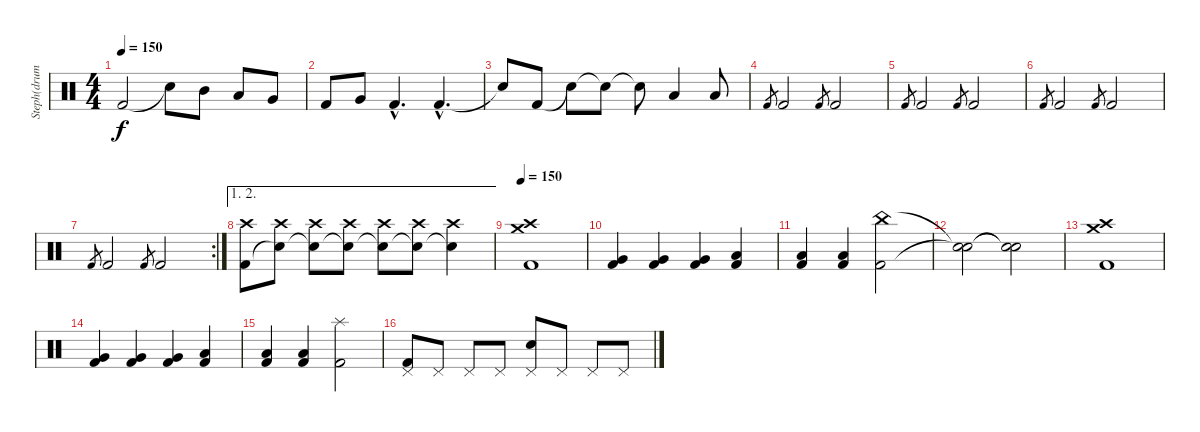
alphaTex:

\track ("Steph(drums)" "Steph(drum") {instrument percussion}
\staff {score}
\articulation defaults
\ts (4 4)
\tempo 150
\clef neutral
\ks c "Kick (hit) 2".2{dy f} "Snare (hit)"{t}.8 "Mid Tom (hit)".8 "Low Tom (hit)".8 "Very Low Tom (hit)".8
|
"Kick (hit) 2".8 "Very Low Tom (hit)".8 "Kick (hit) 2"{hac}.4{d} "Kick (hit) 2"{hac}.4{d} |
"Snare (hit)"{t}.8 "Kick (hit) 2".8 "Snare (hit)"{t}.8 "Snare (hit)"{t}.8 "Snare (hit)"{t}.8 "Low Tom (hit)".4 "Low Tom (hit)".8 |
"Kick (hit) 2".8{gr} "Kick (hit) 2".2 "Kick (hit) 2".8{gr} "Kick (hit) 2".2 |
"Kick (hit) 2".8{gr} "Kick (hit) 2".2 "Kick (hit) 2".8{gr} "Kick (hit) 2".2 |
"Kick (hit) 2".8{gr} "Kick (hit) 2".2 "Kick (hit) 2".8{gr} "Kick (hit) 2".2 |
\rc 2 "Kick (hit) 2".8{gr} "Kick (hit) 2".2 "Kick (hit) 2".8{gr} "Kick (hit) 2".2
|
\ae (1 2)
("Crash high (hit)" "Kick (hit) 2").8 ("Crash high (hit)" "Snare (hit)"{t}).8 ("Crash high (hit)" "Snare (hit)"{t}).8 ("Crash high (hit)" "Snare (hit)"{t}).8 ("Crash high (hit)" "Snare (hit)"{t}).8 ("Crash high (hit)" "Snare (hit)"{t}).8 ("Crash high (hit)" "Snare (hit)"{t}).4 |
\tempo 150
("Crash high (hit)" "Crash medium (hit)" "Kick (hit) 2").1 |
("Very Low Tom (hit)" "Kick (hit) 2").4 ("Very Low Tom (hit)" "Kick (hit) 2").4 ("Very Low Tom (hit)" "Kick (hit) 2").4 ("Low Tom (hit)" "Kick (hit) 2").4 |
("Low Tom (hit)" "Kick (hit) 2").4 ("Low Tom (hit)" "Kick (hit) 2").4 ("China (hit)" "Kick (hit) 2").2 |
("Snare (hit)"{t} "Snare (hit)"{t}).2 ("Snare (hit)"{t} "Snare (hit)"{t}).2 |
("Crash high (hit)" "Crash medium (hit)" "Kick (hit) 2").1 |
("Very Low Tom (hit)" "Kick (hit) 2").4 ("Very Low Tom (hit)" "Kick (hit) 2").4 ("Very Low Tom (hit)" "Kick (hit) 2").4 ("Low Tom (hit)" "Kick (hit) 2").4 |
("Low Tom (hit)" "Kick (hit) 2").4 ("Low Tom (hit)" "Kick (hit) 2").4 ("Splash (hit)" "Kick (hit) 2").2 |
("Kick (hit) 2" "Pedal Hi-Hat (hit)").8 "Pedal Hi-Hat (hit)".8 "Pedal Hi-Hat (hit)".8 "Pedal Hi-Hat (hit)".8 ("Electric Snare (hit)" "Pedal Hi-Hat (hit)").8 "Pedal Hi-Hat (hit)".8 "Pedal Hi-Hat (hit)".8 "Pedal Hi-Hat (hit)".8
